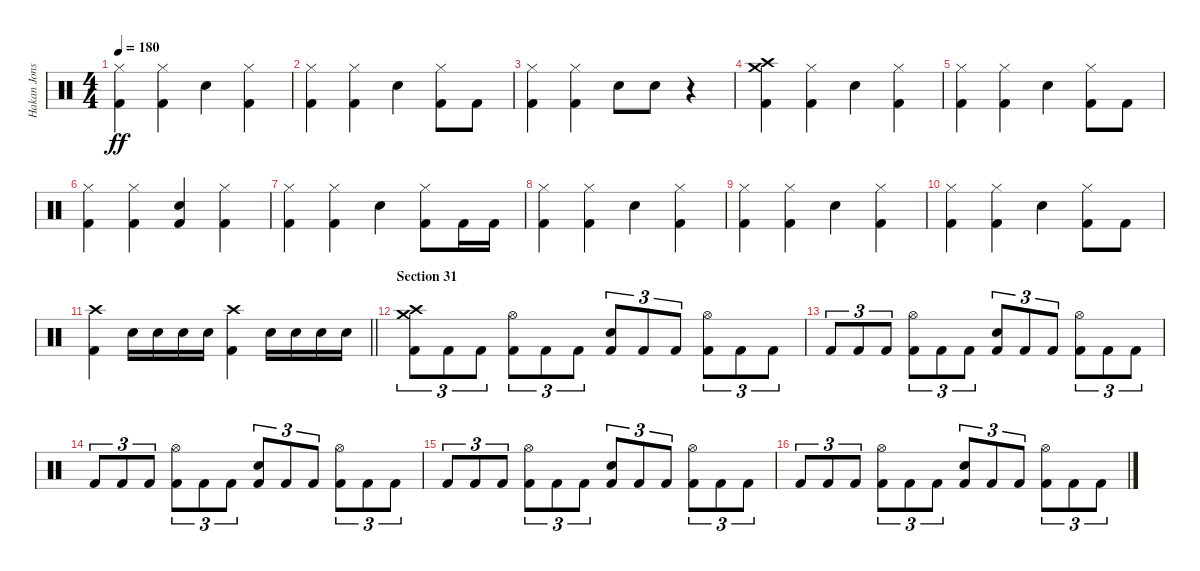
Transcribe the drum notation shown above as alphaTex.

\track ("Hakan Jonsson" "Hakan Jons") {instrument percussion}
\staff {score}
\articulation defaults
\ts (4 4)
\tempo 180
\clef neutral
\ks c
("Hi-Hat (closed)" "Kick (hit) 2").4{dy ff} ("Hi-Hat (closed)" "Kick (hit) 2").4 "Electric Snare (hit)".4 ("Hi-Hat (closed)" "Kick (hit) 2").4 |
("Hi-Hat (closed)" "Kick (hit) 2").4 ("Hi-Hat (closed)" "Kick (hit) 2").4 "Electric Snare (hit)".4 ("Hi-Hat (closed)" "Kick (hit) 2").8 "Kick (hit) 2".8 |
("Hi-Hat (closed)" "Kick (hit) 2").4 ("Hi-Hat (closed)" "Kick (hit) 2").4 "Electric Snare (hit)".8 "Electric Snare (hit)".8 r.4 |
("Crash high (hit)" "Crash medium (hit)" "Kick (hit) 2").4 ("Hi-Hat (closed)" "Kick (hit) 2").4 "Electric Snare (hit)".4 ("Hi-Hat (closed)" "Kick (hit) 2").4 |
("Hi-Hat (closed)" "Kick (hit) 2").4 ("Hi-Hat (closed)" "Kick (hit) 2").4 "Electric Snare (hit)".4 ("Hi-Hat (closed)" "Kick (hit) 2").8 "Kick (hit) 2".8 |
("Hi-Hat (closed)" "Kick (hit) 2").4 ("Hi-Hat (closed)" "Kick (hit) 2").4 ("Electric Snare (hit)" "Kick (hit) 2").4 ("Hi-Hat (closed)" "Kick (hit) 2").4 |
("Hi-Hat (closed)" "Kick (hit) 2").4 ("Hi-Hat (closed)" "Kick (hit) 2").4 "Electric Snare (hit)".4 ("Hi-Hat (closed)" "Kick (hit) 2").8 "Kick (hit) 2".16 "Kick (hit) 2".16 |
("Hi-Hat (closed)" "Kick (hit) 2").4 ("Hi-Hat (closed)" "Kick (hit) 2").4 "Electric Snare (hit)".4 ("Hi-Hat (closed)" "Kick (hit) 2").4 |
("Hi-Hat (closed)" "Kick (hit) 2").4 ("Hi-Hat (closed)" "Kick (hit) 2").4 "Electric Snare (hit)".4 ("Hi-Hat (closed)" "Kick (hit) 2").4 |
("Hi-Hat (closed)" "Kick (hit) 2").4 ("Hi-Hat (closed)" "Kick (hit) 2").4 "Electric Snare (hit)".4 ("Hi-Hat (closed)" "Kick (hit) 2").8 "Kick (hit) 2".8 |
\barLineRight lightlight
("Crash high (hit)" "Kick (hit) 2").4 "Electric Snare (hit)".16 "Electric Snare (hit)".16 "Electric Snare (hit)".16 "Electric Snare (hit)".16 ("Crash high (hit)" "Kick (hit) 2").4 "Electric Snare (hit)".16 "Electric Snare (hit)".16 "Electric Snare (hit)".16 "Electric Snare (hit)".16 |
\section ("" "Section 31")
("Crash high (hit)" "Crash medium (hit)" "Kick (hit) 2").8{tu (3 2)} "Kick (hit) 2".8{tu (3 2)} "Kick (hit) 2".8{tu (3 2)} ("Hi-Hat (open)" "Kick (hit) 2").8{tu (3 2)} "Kick (hit) 2".8{tu (3 2)} "Kick (hit) 2".8{tu (3 2)} ("Electric Snare (hit)" "Kick (hit) 2").8{tu (3 2)} "Kick (hit) 2".8{tu (3 2)} "Kick (hit) 2".8{tu (3 2)} ("Hi-Hat (open)" "Kick (hit) 2").8{tu (3 2)} "Kick (hit) 2".8{tu (3 2)} "Kick (hit) 2".8{tu (3 2)} |
"Kick (hit) 2".8{tu (3 2)} "Kick (hit) 2".8{tu (3 2)} "Kick (hit) 2".8{tu (3 2)} ("Hi-Hat (open)" "Kick (hit) 2").8{tu (3 2)} "Kick (hit) 2".8{tu (3 2)} "Kick (hit) 2".8{tu (3 2)} ("Electric Snare (hit)" "Kick (hit) 2").8{tu (3 2)} "Kick (hit) 2".8{tu (3 2)} "Kick (hit) 2".8{tu (3 2)} ("Hi-Hat (open)" "Kick (hit) 2").8{tu (3 2)} "Kick (hit) 2".8{tu (3 2)} "Kick (hit) 2".8{tu (3 2)} |
"Kick (hit) 2".8{tu (3 2)} "Kick (hit) 2".8{tu (3 2)} "Kick (hit) 2".8{tu (3 2)} ("Hi-Hat (open)" "Kick (hit) 2").8{tu (3 2)} "Kick (hit) 2".8{tu (3 2)} "Kick (hit) 2".8{tu (3 2)} ("Electric Snare (hit)" "Kick (hit) 2").8{tu (3 2)} "Kick (hit) 2".8{tu (3 2)} "Kick (hit) 2".8{tu (3 2)} ("Hi-Hat (open)" "Kick (hit) 2").8{tu (3 2)} "Kick (hit) 2".8{tu (3 2)} "Kick (hit) 2".8{tu (3 2)} |
"Kick (hit) 2".8{tu (3 2)} "Kick (hit) 2".8{tu (3 2)} "Kick (hit) 2".8{tu (3 2)} ("Hi-Hat (open)" "Kick (hit) 2").8{tu (3 2)} "Kick (hit) 2".8{tu (3 2)} "Kick (hit) 2".8{tu (3 2)} ("Electric Snare (hit)" "Kick (hit) 2").8{tu (3 2)} "Kick (hit) 2".8{tu (3 2)} "Kick (hit) 2".8{tu (3 2)} ("Hi-Hat (open)" "Kick (hit) 2").8{tu (3 2)} "Kick (hit) 2".8{tu (3 2)} "Kick (hit) 2".8{tu (3 2)} |
"Kick (hit) 2".8{tu (3 2)} "Kick (hit) 2".8{tu (3 2)} "Kick (hit) 2".8{tu (3 2)} ("Hi-Hat (open)" "Kick (hit) 2").8{tu (3 2)} "Kick (hit) 2".8{tu (3 2)} "Kick (hit) 2".8{tu (3 2)} ("Electric Snare (hit)" "Kick (hit) 2").8{tu (3 2)} "Kick (hit) 2".8{tu (3 2)} "Kick (hit) 2".8{tu (3 2)} ("Hi-Hat (open)" "Kick (hit) 2").8{tu (3 2)} "Kick (hit) 2".8{tu (3 2)} "Kick (hit) 2".8{tu (3 2)}
